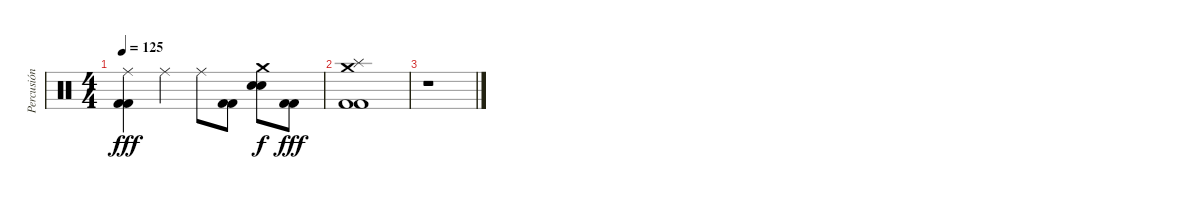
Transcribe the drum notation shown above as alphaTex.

\track ("Percusión" "Percusión") {instrument percussion}
\staff {score}
\articulation defaults
\ts (4 4)
\tempo 125
\clef neutral
\ks c
("Ride (middle)" "Kick (hit) 2" "Kick (hit) 2").4{dy fff} "Ride (middle)".4 "Ride (middle)".8 ("Kick (hit) 2" "Kick (hit) 2").8 ("Crash medium (hit)" "Electric Snare (hit)" "Electric Snare (hit)").8{dy f} ("Kick (hit) 2" "Kick (hit) 2").8{dy fff} |
("Splash (hit)" "Crash medium (hit)" "Kick (hit) 2" "Kick (hit) 2").1 |
r.1
